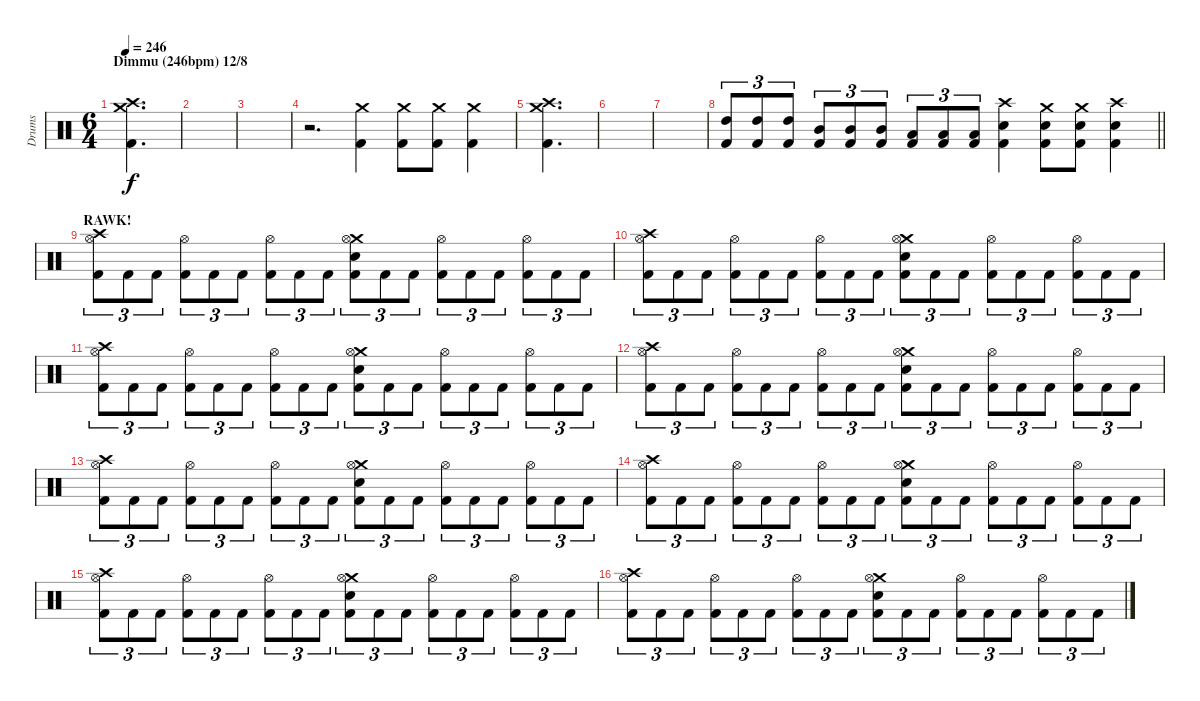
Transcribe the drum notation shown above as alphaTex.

\track ("Drums" "Drums") {instrument percussion}
\staff {score}
\articulation defaults
\ts (6 4)
\section ("" "Dimmu (246bpm) 12/8")
\tempo 246
\clef neutral
\ks c
("Crash high (hit)" "Crash medium (hit)" "Kick (hit) 2").4{d dy f} |
|
|
r.2{d} ("Crash medium (hit)" "Kick (hit) 2").4 ("Crash medium (hit)" "Kick (hit) 2").8 ("Crash medium (hit)" "Kick (hit) 2").8 ("Crash medium (hit)" "Kick (hit) 2").4 |
("Crash high (hit)" "Crash medium (hit)" "Kick (hit) 2").4{d} |
|
|
\barLineRight lightlight
("High Tom (hit)" "Kick (hit) 2").8{tu (3 2)} ("High Tom (hit)" "Kick (hit) 2").8{tu (3 2)} ("High Tom (hit)" "Kick (hit) 2").8{tu (3 2)} ("Mid Tom (hit)" "Kick (hit) 2").8{tu (3 2)} ("Mid Tom (hit)" "Kick (hit) 2").8{tu (3 2)} ("Mid Tom (hit)" "Kick (hit) 2").8{tu (3 2)} ("Low Tom (hit)" "Kick (hit) 2").8{tu (3 2)} ("Low Tom (hit)" "Kick (hit) 2").8{tu (3 2)} ("Low Tom (hit)" "Kick (hit) 2").8{tu (3 2)} ("Crash high (hit)" "Snare (hit) 2" "Kick (hit) 2").4 ("Crash medium (hit)" "Snare (hit) 2" "Kick (hit) 2").8 ("Crash medium (hit)" "Snare (hit) 2" "Kick (hit) 2").8 ("Crash high (hit)" "Snare (hit) 2" "Kick (hit) 2").4 |
\section ("" "RAWK!")
("Crash high (hit)" "Hi-Hat (open)" "Kick (hit) 2").8{tu (3 2)} "Kick (hit) 2".8{tu (3 2)} "Kick (hit) 2".8{tu (3 2)} ("Hi-Hat (open)" "Kick (hit) 2").8{tu (3 2)} "Kick (hit) 2".8{tu (3 2)} "Kick (hit) 2".8{tu (3 2)} ("Hi-Hat (open)" "Kick (hit) 2").8{tu (3 2)} "Kick (hit) 2".8{tu (3 2)} "Kick (hit) 2".8{tu (3 2)} ("Crash medium (hit)" "Hi-Hat (open)" "Snare (hit) 2" "Kick (hit) 2").8{tu (3 2)} "Kick (hit) 2".8{tu (3 2)} "Kick (hit) 2".8{tu (3 2)} ("Hi-Hat (open)" "Kick (hit) 2").8{tu (3 2)} "Kick (hit) 2".8{tu (3 2)} "Kick (hit) 2".8{tu (3 2)} ("Hi-Hat (open)" "Kick (hit) 2").8{tu (3 2)} "Kick (hit) 2".8{tu (3 2)} "Kick (hit) 2".8{tu (3 2)} |
("Crash high (hit)" "Hi-Hat (open)" "Kick (hit) 2").8{tu (3 2)} "Kick (hit) 2".8{tu (3 2)} "Kick (hit) 2".8{tu (3 2)} ("Hi-Hat (open)" "Kick (hit) 2").8{tu (3 2)} "Kick (hit) 2".8{tu (3 2)} "Kick (hit) 2".8{tu (3 2)} ("Hi-Hat (open)" "Kick (hit) 2").8{tu (3 2)} "Kick (hit) 2".8{tu (3 2)} "Kick (hit) 2".8{tu (3 2)} ("Crash medium (hit)" "Hi-Hat (open)" "Snare (hit) 2" "Kick (hit) 2").8{tu (3 2)} "Kick (hit) 2".8{tu (3 2)} "Kick (hit) 2".8{tu (3 2)} ("Hi-Hat (open)" "Kick (hit) 2").8{tu (3 2)} "Kick (hit) 2".8{tu (3 2)} "Kick (hit) 2".8{tu (3 2)} ("Hi-Hat (open)" "Kick (hit) 2").8{tu (3 2)} "Kick (hit) 2".8{tu (3 2)} "Kick (hit) 2".8{tu (3 2)} |
("Crash high (hit)" "Hi-Hat (open)" "Kick (hit) 2").8{tu (3 2)} "Kick (hit) 2".8{tu (3 2)} "Kick (hit) 2".8{tu (3 2)} ("Hi-Hat (open)" "Kick (hit) 2").8{tu (3 2)} "Kick (hit) 2".8{tu (3 2)} "Kick (hit) 2".8{tu (3 2)} ("Hi-Hat (open)" "Kick (hit) 2").8{tu (3 2)} "Kick (hit) 2".8{tu (3 2)} "Kick (hit) 2".8{tu (3 2)} ("Crash medium (hit)" "Hi-Hat (open)" "Snare (hit) 2" "Kick (hit) 2").8{tu (3 2)} "Kick (hit) 2".8{tu (3 2)} "Kick (hit) 2".8{tu (3 2)} ("Hi-Hat (open)" "Kick (hit) 2").8{tu (3 2)} "Kick (hit) 2".8{tu (3 2)} "Kick (hit) 2".8{tu (3 2)} ("Hi-Hat (open)" "Kick (hit) 2").8{tu (3 2)} "Kick (hit) 2".8{tu (3 2)} "Kick (hit) 2".8{tu (3 2)} |
("Crash high (hit)" "Hi-Hat (open)" "Kick (hit) 2").8{tu (3 2)} "Kick (hit) 2".8{tu (3 2)} "Kick (hit) 2".8{tu (3 2)} ("Hi-Hat (open)" "Kick (hit) 2").8{tu (3 2)} "Kick (hit) 2".8{tu (3 2)} "Kick (hit) 2".8{tu (3 2)} ("Hi-Hat (open)" "Kick (hit) 2").8{tu (3 2)} "Kick (hit) 2".8{tu (3 2)} "Kick (hit) 2".8{tu (3 2)} ("Crash medium (hit)" "Hi-Hat (open)" "Snare (hit) 2" "Kick (hit) 2").8{tu (3 2)} "Kick (hit) 2".8{tu (3 2)} "Kick (hit) 2".8{tu (3 2)} ("Hi-Hat (open)" "Kick (hit) 2").8{tu (3 2)} "Kick (hit) 2".8{tu (3 2)} "Kick (hit) 2".8{tu (3 2)} ("Hi-Hat (open)" "Kick (hit) 2").8{tu (3 2)} "Kick (hit) 2".8{tu (3 2)} "Kick (hit) 2".8{tu (3 2)} |
("Crash high (hit)" "Hi-Hat (open)" "Kick (hit) 2").8{tu (3 2)} "Kick (hit) 2".8{tu (3 2)} "Kick (hit) 2".8{tu (3 2)} ("Hi-Hat (open)" "Kick (hit) 2").8{tu (3 2)} "Kick (hit) 2".8{tu (3 2)} "Kick (hit) 2".8{tu (3 2)} ("Hi-Hat (open)" "Kick (hit) 2").8{tu (3 2)} "Kick (hit) 2".8{tu (3 2)} "Kick (hit) 2".8{tu (3 2)} ("Crash medium (hit)" "Hi-Hat (open)" "Snare (hit) 2" "Kick (hit) 2").8{tu (3 2)} "Kick (hit) 2".8{tu (3 2)} "Kick (hit) 2".8{tu (3 2)} ("Hi-Hat (open)" "Kick (hit) 2").8{tu (3 2)} "Kick (hit) 2".8{tu (3 2)} "Kick (hit) 2".8{tu (3 2)} ("Hi-Hat (open)" "Kick (hit) 2").8{tu (3 2)} "Kick (hit) 2".8{tu (3 2)} "Kick (hit) 2".8{tu (3 2)} |
("Crash high (hit)" "Hi-Hat (open)" "Kick (hit) 2").8{tu (3 2)} "Kick (hit) 2".8{tu (3 2)} "Kick (hit) 2".8{tu (3 2)} ("Hi-Hat (open)" "Kick (hit) 2").8{tu (3 2)} "Kick (hit) 2".8{tu (3 2)} "Kick (hit) 2".8{tu (3 2)} ("Hi-Hat (open)" "Kick (hit) 2").8{tu (3 2)} "Kick (hit) 2".8{tu (3 2)} "Kick (hit) 2".8{tu (3 2)} ("Crash medium (hit)" "Hi-Hat (open)" "Snare (hit) 2" "Kick (hit) 2").8{tu (3 2)} "Kick (hit) 2".8{tu (3 2)} "Kick (hit) 2".8{tu (3 2)} ("Hi-Hat (open)" "Kick (hit) 2").8{tu (3 2)} "Kick (hit) 2".8{tu (3 2)} "Kick (hit) 2".8{tu (3 2)} ("Hi-Hat (open)" "Kick (hit) 2").8{tu (3 2)} "Kick (hit) 2".8{tu (3 2)} "Kick (hit) 2".8{tu (3 2)} |
("Crash high (hit)" "Hi-Hat (open)" "Kick (hit) 2").8{tu (3 2)} "Kick (hit) 2".8{tu (3 2)} "Kick (hit) 2".8{tu (3 2)} ("Hi-Hat (open)" "Kick (hit) 2").8{tu (3 2)} "Kick (hit) 2".8{tu (3 2)} "Kick (hit) 2".8{tu (3 2)} ("Hi-Hat (open)" "Kick (hit) 2").8{tu (3 2)} "Kick (hit) 2".8{tu (3 2)} "Kick (hit) 2".8{tu (3 2)} ("Crash medium (hit)" "Hi-Hat (open)" "Snare (hit) 2" "Kick (hit) 2").8{tu (3 2)} "Kick (hit) 2".8{tu (3 2)} "Kick (hit) 2".8{tu (3 2)} ("Hi-Hat (open)" "Kick (hit) 2").8{tu (3 2)} "Kick (hit) 2".8{tu (3 2)} "Kick (hit) 2".8{tu (3 2)} ("Hi-Hat (open)" "Kick (hit) 2").8{tu (3 2)} "Kick (hit) 2".8{tu (3 2)} "Kick (hit) 2".8{tu (3 2)} |
("Crash high (hit)" "Hi-Hat (open)" "Kick (hit) 2").8{tu (3 2)} "Kick (hit) 2".8{tu (3 2)} "Kick (hit) 2".8{tu (3 2)} ("Hi-Hat (open)" "Kick (hit) 2").8{tu (3 2)} "Kick (hit) 2".8{tu (3 2)} "Kick (hit) 2".8{tu (3 2)} ("Hi-Hat (open)" "Kick (hit) 2").8{tu (3 2)} "Kick (hit) 2".8{tu (3 2)} "Kick (hit) 2".8{tu (3 2)} ("Crash medium (hit)" "Hi-Hat (open)" "Snare (hit) 2" "Kick (hit) 2").8{tu (3 2)} "Kick (hit) 2".8{tu (3 2)} "Kick (hit) 2".8{tu (3 2)} ("Hi-Hat (open)" "Kick (hit) 2").8{tu (3 2)} "Kick (hit) 2".8{tu (3 2)} "Kick (hit) 2".8{tu (3 2)} ("Hi-Hat (open)" "Kick (hit) 2").8{tu (3 2)} "Kick (hit) 2".8{tu (3 2)} "Kick (hit) 2".8{tu (3 2)}
